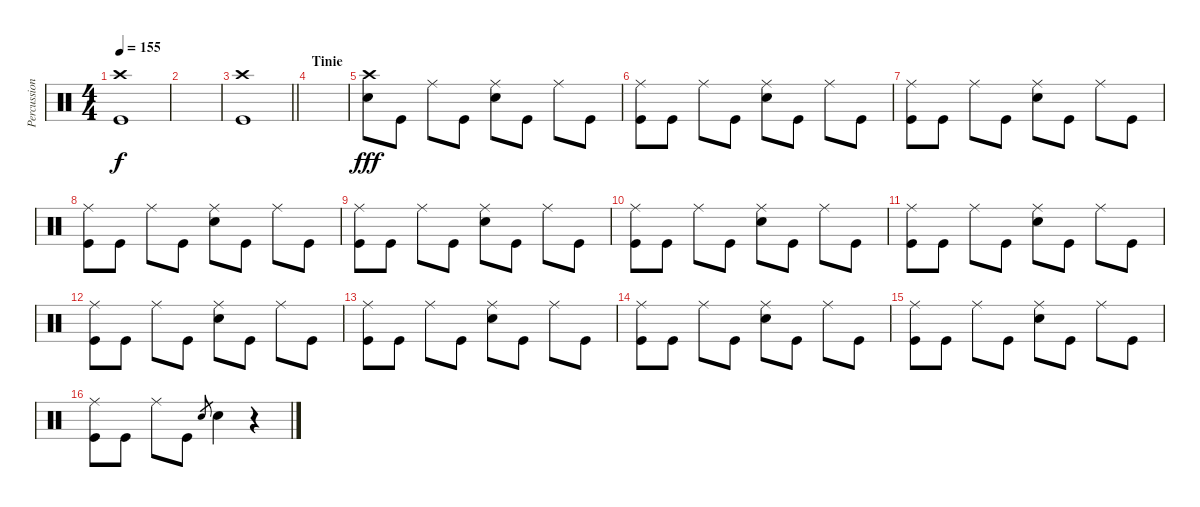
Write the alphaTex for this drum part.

\track ("Percussion" "Percussion") {instrument percussion}
\staff {score}
\articulation defaults
\ts (4 4)
\tempo 155
\clef neutral
\ks c
("Crash high (hit)" "Kick (hit)").1{dy f} |
|
\barLineRight lightlight
("Crash high (hit)" "Kick (hit)").1 |
\section ("" "Tinie")
|
("Crash high (hit)" "Electric Snare (hit)").8{dy fff} "Kick (hit)".8 "Ride (middle)".8 "Kick (hit)".8 ("Ride (middle)" "Electric Snare (hit)").8 "Kick (hit)".8 "Ride (middle)".8 "Kick (hit)".8 |
("Ride (middle)" "Kick (hit)").8 "Kick (hit)".8 "Ride (middle)".8 "Kick (hit)".8 ("Ride (middle)" "Electric Snare (hit)").8 "Kick (hit)".8 "Ride (middle)".8 "Kick (hit)".8 |
("Ride (middle)" "Kick (hit)").8 "Kick (hit)".8 "Ride (middle)".8 "Kick (hit)".8 ("Ride (middle)" "Electric Snare (hit)").8 "Kick (hit)".8 "Ride (middle)".8 "Kick (hit)".8 |
("Ride (middle)" "Kick (hit)").8 "Kick (hit)".8 "Ride (middle)".8 "Kick (hit)".8 ("Ride (middle)" "Electric Snare (hit)").8 "Kick (hit)".8 "Ride (middle)".8 "Kick (hit)".8 |
("Ride (middle)" "Kick (hit)").8 "Kick (hit)".8 "Ride (middle)".8 "Kick (hit)".8 ("Ride (middle)" "Electric Snare (hit)").8 "Kick (hit)".8 "Ride (middle)".8 "Kick (hit)".8 |
("Ride (middle)" "Kick (hit)").8 "Kick (hit)".8 "Ride (middle)".8 "Kick (hit)".8 ("Ride (middle)" "Electric Snare (hit)").8 "Kick (hit)".8 "Ride (middle)".8 "Kick (hit)".8 |
("Ride (middle)" "Kick (hit)").8 "Kick (hit)".8 "Ride (middle)".8 "Kick (hit)".8 ("Ride (middle)" "Electric Snare (hit)").8 "Kick (hit)".8 "Ride (middle)".8 "Kick (hit)".8 |
("Ride (middle)" "Kick (hit)").8 "Kick (hit)".8 "Ride (middle)".8 "Kick (hit)".8 ("Ride (middle)" "Electric Snare (hit)").8 "Kick (hit)".8 "Ride (middle)".8 "Kick (hit)".8 |
("Ride (middle)" "Kick (hit)").8 "Kick (hit)".8 "Ride (middle)".8 "Kick (hit)".8 ("Ride (middle)" "Electric Snare (hit)").8 "Kick (hit)".8 "Ride (middle)".8 "Kick (hit)".8 |
("Ride (middle)" "Kick (hit)").8 "Kick (hit)".8 "Ride (middle)".8 "Kick (hit)".8 ("Ride (middle)" "Electric Snare (hit)").8 "Kick (hit)".8 "Ride (middle)".8 "Kick (hit)".8 |
("Ride (middle)" "Kick (hit)").8 "Kick (hit)".8 "Ride (middle)".8 "Kick (hit)".8 ("Ride (middle)" "Electric Snare (hit)").8 "Kick (hit)".8 "Ride (middle)".8 "Kick (hit)".8 |
("Ride (middle)" "Kick (hit)").8 "Kick (hit)".8 "Ride (middle)".8 "Kick (hit)".8 "Electric Snare (hit)".8{gr} "Electric Snare (hit)".4 r.4
